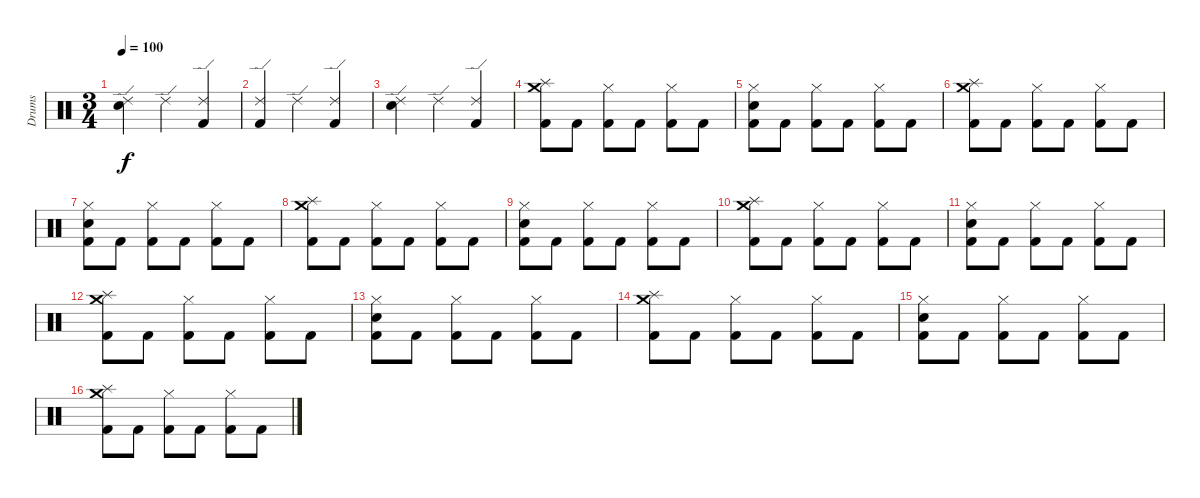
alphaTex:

\track ("Drums" "Drums") {instrument percussion}
\staff {score}
\articulation defaults
\ts (3 4)
\tempo 100
\clef neutral
\ks c
("Ride (edge) 2" "Electric Snare (hit)").4{dy f} "Ride (edge) 2".4 ("Ride (edge) 2" "Kick (hit) 2").4 |
("Ride (edge) 2" "Kick (hit) 2").4 "Ride (edge) 2".4 ("Ride (edge) 2" "Kick (hit) 2").4 |
("Ride (edge) 2" "Electric Snare (hit)").4 "Ride (edge) 2".4 ("Ride (edge) 2" "Kick (hit) 2").4 |
("Crash medium (hit)" "Splash (hit)" "Kick (hit) 2").8 "Kick (hit) 2".8 ("Hi-Hat (closed)" "Kick (hit) 2").8 "Kick (hit) 2".8 ("Hi-Hat (closed)" "Kick (hit) 2").8 "Kick (hit) 2".8 |
("Hi-Hat (closed)" "Electric Snare (hit)" "Kick (hit) 2").8 "Kick (hit) 2".8 ("Hi-Hat (closed)" "Kick (hit) 2").8 "Kick (hit) 2".8 ("Hi-Hat (closed)" "Kick (hit) 2").8 "Kick (hit) 2".8 |
("Crash medium (hit)" "Splash (hit)" "Kick (hit) 2").8 "Kick (hit) 2".8 ("Hi-Hat (closed)" "Kick (hit) 2").8 "Kick (hit) 2".8 ("Hi-Hat (closed)" "Kick (hit) 2").8 "Kick (hit) 2".8 |
("Hi-Hat (closed)" "Electric Snare (hit)" "Kick (hit) 2").8 "Kick (hit) 2".8 ("Hi-Hat (closed)" "Kick (hit) 2").8 "Kick (hit) 2".8 ("Hi-Hat (closed)" "Kick (hit) 2").8 "Kick (hit) 2".8 |
("Crash medium (hit)" "Splash (hit)" "Kick (hit) 2").8 "Kick (hit) 2".8 ("Hi-Hat (closed)" "Kick (hit) 2").8 "Kick (hit) 2".8 ("Hi-Hat (closed)" "Kick (hit) 2").8 "Kick (hit) 2".8 |
("Hi-Hat (closed)" "Electric Snare (hit)" "Kick (hit) 2").8 "Kick (hit) 2".8 ("Hi-Hat (closed)" "Kick (hit) 2").8 "Kick (hit) 2".8 ("Hi-Hat (closed)" "Kick (hit) 2").8 "Kick (hit) 2".8 |
("Crash medium (hit)" "Splash (hit)" "Kick (hit) 2").8 "Kick (hit) 2".8 ("Hi-Hat (closed)" "Kick (hit) 2").8 "Kick (hit) 2".8 ("Hi-Hat (closed)" "Kick (hit) 2").8 "Kick (hit) 2".8 |
("Hi-Hat (closed)" "Electric Snare (hit)" "Kick (hit) 2").8 "Kick (hit) 2".8 ("Hi-Hat (closed)" "Kick (hit) 2").8 "Kick (hit) 2".8 ("Hi-Hat (closed)" "Kick (hit) 2").8 "Kick (hit) 2".8 |
("Crash medium (hit)" "Splash (hit)" "Kick (hit) 2").8 "Kick (hit) 2".8 ("Hi-Hat (closed)" "Kick (hit) 2").8 "Kick (hit) 2".8 ("Hi-Hat (closed)" "Kick (hit) 2").8 "Kick (hit) 2".8 |
("Hi-Hat (closed)" "Electric Snare (hit)" "Kick (hit) 2").8 "Kick (hit) 2".8 ("Hi-Hat (closed)" "Kick (hit) 2").8 "Kick (hit) 2".8 ("Hi-Hat (closed)" "Kick (hit) 2").8 "Kick (hit) 2".8 |
("Crash medium (hit)" "Splash (hit)" "Kick (hit) 2").8 "Kick (hit) 2".8 ("Hi-Hat (closed)" "Kick (hit) 2").8 "Kick (hit) 2".8 ("Hi-Hat (closed)" "Kick (hit) 2").8 "Kick (hit) 2".8 |
("Hi-Hat (closed)" "Electric Snare (hit)" "Kick (hit) 2").8 "Kick (hit) 2".8 ("Hi-Hat (closed)" "Kick (hit) 2").8 "Kick (hit) 2".8 ("Hi-Hat (closed)" "Kick (hit) 2").8 "Kick (hit) 2".8 |
("Crash medium (hit)" "Splash (hit)" "Kick (hit) 2").8 "Kick (hit) 2".8 ("Hi-Hat (closed)" "Kick (hit) 2").8 "Kick (hit) 2".8 ("Hi-Hat (closed)" "Kick (hit) 2").8 "Kick (hit) 2".8
